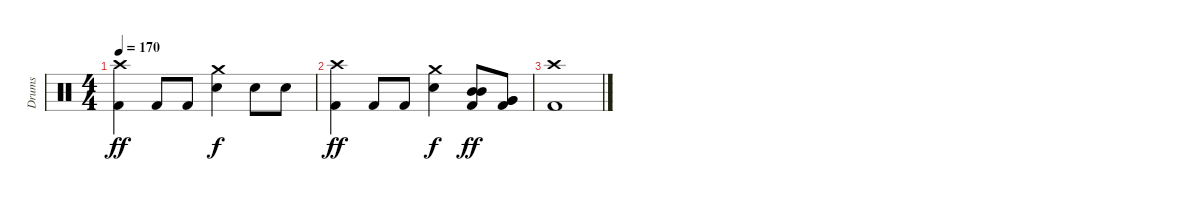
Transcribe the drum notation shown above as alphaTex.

\track ("Drums" "Drums") {instrument percussion}
\staff {score}
\articulation defaults
\ts (4 4)
\tempo 170
\clef neutral
\ks c
("Crash high (hit)" "Kick (hit) 2").4{dy ff} "Kick (hit) 2".8 "Kick (hit) 2".8 ("Crash medium (hit)" "Electric Snare (hit)").4{dy f} "Electric Snare (hit)".8 "Electric Snare (hit)".8 |
("Crash high (hit)" "Kick (hit) 2").4{dy ff} "Kick (hit) 2".8 "Kick (hit) 2".8 ("Crash medium (hit)" "Electric Snare (hit)").4{dy f} ("Mid Tom (hit)" "Mid Tom (hit)" "Kick (hit) 2").8{dy ff} ("Very Low Tom (hit)" "Very Low Tom (hit)" "Kick (hit) 2").8 |
\section ("" "")
("Crash high (hit)" "Kick (hit) 2").1
